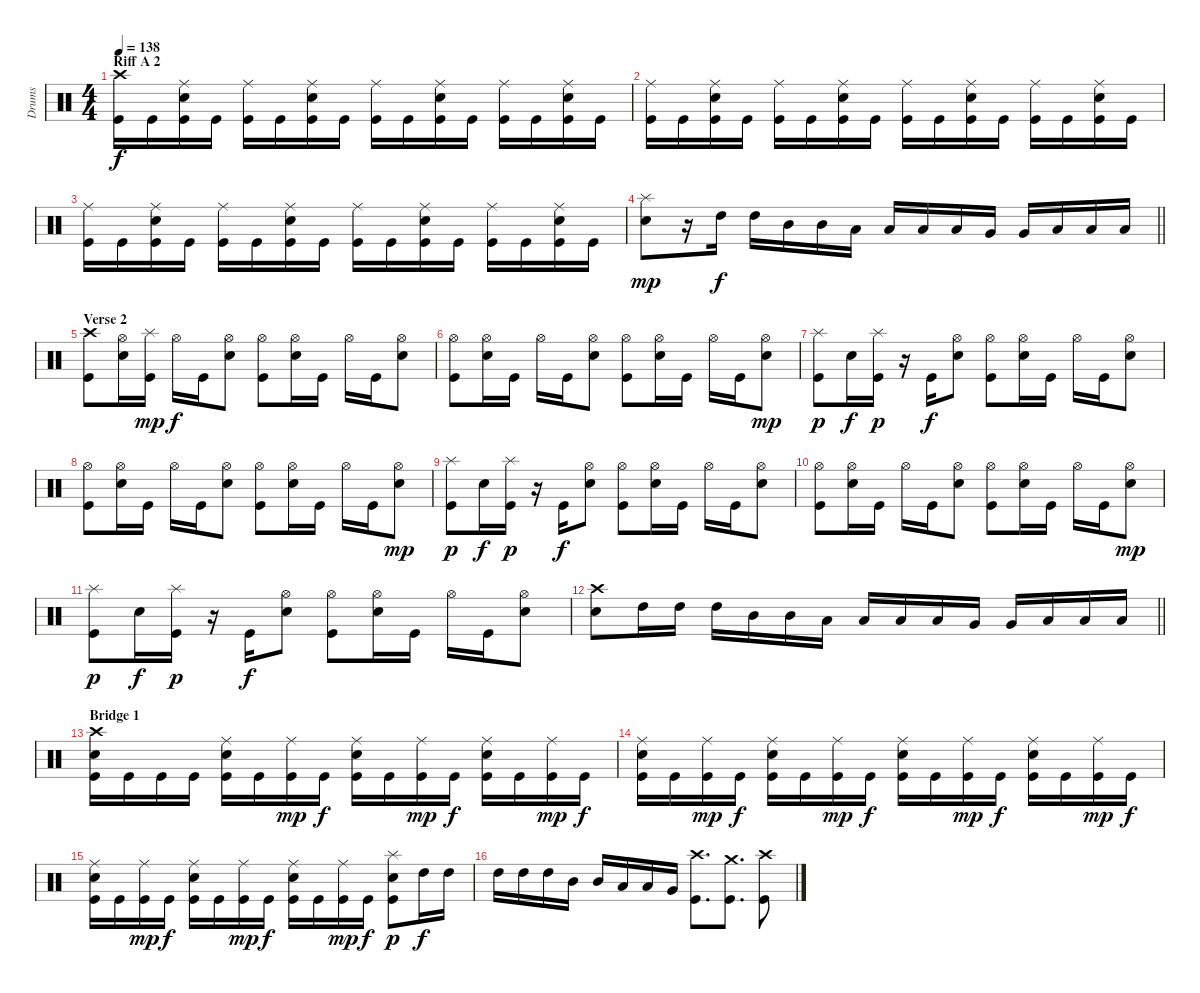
\track ("Drums" "Drums") {instrument percussion}
\staff {score}
\articulation defaults
\ts (4 4)
\section ("" "Riff A 2")
\tempo 138
\clef neutral
\ks c
("Crash high (hit)" "Kick (hit)").16{dy f} "Kick (hit)".16 ("Ride (middle)" "Electric Snare (hit)" "Kick (hit)").16 "Kick (hit)".16 ("Ride (middle)" "Kick (hit)").16 "Kick (hit)".16 ("Ride (middle)" "Electric Snare (hit)" "Kick (hit)").16 "Kick (hit)".16 ("Ride (middle)" "Kick (hit)").16 "Kick (hit)".16 ("Ride (middle)" "Electric Snare (hit)" "Kick (hit)").16 "Kick (hit)".16 ("Ride (middle)" "Kick (hit)").16 "Kick (hit)".16 ("Ride (middle)" "Electric Snare (hit)" "Kick (hit)").16 "Kick (hit)".16 |
("Ride (middle)" "Kick (hit)").16 "Kick (hit)".16 ("Ride (middle)" "Electric Snare (hit)" "Kick (hit)").16 "Kick (hit)".16 ("Ride (middle)" "Kick (hit)").16 "Kick (hit)".16 ("Ride (middle)" "Electric Snare (hit)" "Kick (hit)").16 "Kick (hit)".16 ("Ride (middle)" "Kick (hit)").16 "Kick (hit)".16 ("Ride (middle)" "Electric Snare (hit)" "Kick (hit)").16 "Kick (hit)".16 ("Ride (middle)" "Kick (hit)").16 "Kick (hit)".16 ("Ride (middle)" "Electric Snare (hit)" "Kick (hit)").16 "Kick (hit)".16 |
("Ride (middle)" "Kick (hit)").16 "Kick (hit)".16 ("Ride (middle)" "Electric Snare (hit)" "Kick (hit)").16 "Kick (hit)".16 ("Ride (middle)" "Kick (hit)").16 "Kick (hit)".16 ("Ride (middle)" "Electric Snare (hit)" "Kick (hit)").16 "Kick (hit)".16 ("Ride (middle)" "Kick (hit)").16 "Kick (hit)".16 ("Ride (middle)" "Electric Snare (hit)" "Kick (hit)").16 "Kick (hit)".16 ("Ride (middle)" "Kick (hit)").16 "Kick (hit)".16 ("Ride (middle)" "Electric Snare (hit)" "Kick (hit)").16 "Kick (hit)".16 |
\barLineRight lightlight
("Splash (hit)" "Electric Snare (hit)").8{dy mp} r.16 "High Tom (hit)".16{dy f} "High Tom (hit)".16 "Mid Tom (hit)".16 "Mid Tom (hit)".16 "Low Tom (hit)".16 "Low Tom (hit)".16 "Low Tom (hit)".16 "Low Tom (hit)".16 "Very Low Tom (hit)".16 "Very Low Tom (hit)".16 "Low Floor Tom (hit)".16 "Low Floor Tom (hit)".16 "Low Floor Tom (hit)".16 |
\section ("" "Verse 2")
("Crash high (hit)" "Kick (hit)").8 ("Hi-Hat (open)" "Electric Snare (hit)").16 ("Splash (hit)" "Kick (hit)").16{dy mp} "Hi-Hat (open)".16{dy f} "Kick (hit)".16 ("Hi-Hat (open)" "Electric Snare (hit)").8 ("Hi-Hat (open)" "Kick (hit)").8 ("Hi-Hat (open)" "Electric Snare (hit)").16 "Kick (hit)".16 "Hi-Hat (open)".16 "Kick (hit)".16 ("Hi-Hat (open)" "Electric Snare (hit)").8 |
("Hi-Hat (open)" "Kick (hit)").8 ("Hi-Hat (open)" "Electric Snare (hit)").16 "Kick (hit)".16 "Hi-Hat (open)".16 "Kick (hit)".16 ("Hi-Hat (open)" "Electric Snare (hit)").8 ("Hi-Hat (open)" "Kick (hit)").8 ("Hi-Hat (open)" "Electric Snare (hit)").16 "Kick (hit)".16 "Hi-Hat (open)".16 "Kick (hit)".16 ("Hi-Hat (open)" "Electric Snare (hit)").8{dy mp} |
("Splash (hit)" "Kick (hit)").8{dy p} "Electric Snare (hit)".16{dy f} ("Splash (hit)" "Kick (hit)").16{dy p} r.16 "Kick (hit)".16{dy f} ("Hi-Hat (open)" "Electric Snare (hit)").8 ("Hi-Hat (open)" "Kick (hit)").8 ("Hi-Hat (open)" "Electric Snare (hit)").16 "Kick (hit)".16 "Hi-Hat (open)".16 "Kick (hit)".16 ("Hi-Hat (open)" "Electric Snare (hit)").8 |
("Hi-Hat (open)" "Kick (hit)").8 ("Hi-Hat (open)" "Electric Snare (hit)").16 "Kick (hit)".16 "Hi-Hat (open)".16 "Kick (hit)".16 ("Hi-Hat (open)" "Electric Snare (hit)").8 ("Hi-Hat (open)" "Kick (hit)").8 ("Hi-Hat (open)" "Electric Snare (hit)").16 "Kick (hit)".16 "Hi-Hat (open)".16 "Kick (hit)".16 ("Hi-Hat (open)" "Electric Snare (hit)").8{dy mp} |
("Splash (hit)" "Kick (hit)").8{dy p} "Electric Snare (hit)".16{dy f} ("Splash (hit)" "Kick (hit)").16{dy p} r.16 "Kick (hit)".16{dy f} ("Hi-Hat (open)" "Electric Snare (hit)").8 ("Hi-Hat (open)" "Kick (hit)").8 ("Hi-Hat (open)" "Electric Snare (hit)").16 "Kick (hit)".16 "Hi-Hat (open)".16 "Kick (hit)".16 ("Hi-Hat (open)" "Electric Snare (hit)").8 |
("Hi-Hat (open)" "Kick (hit)").8 ("Hi-Hat (open)" "Electric Snare (hit)").16 "Kick (hit)".16 "Hi-Hat (open)".16 "Kick (hit)".16 ("Hi-Hat (open)" "Electric Snare (hit)").8 ("Hi-Hat (open)" "Kick (hit)").8 ("Hi-Hat (open)" "Electric Snare (hit)").16 "Kick (hit)".16 "Hi-Hat (open)".16 "Kick (hit)".16 ("Hi-Hat (open)" "Electric Snare (hit)").8{dy mp} |
("Splash (hit)" "Kick (hit)").8{dy p} "Electric Snare (hit)".16{dy f} ("Splash (hit)" "Kick (hit)").16{dy p} r.16 "Kick (hit)".16{dy f} ("Hi-Hat (open)" "Electric Snare (hit)").8 ("Hi-Hat (open)" "Kick (hit)").8 ("Hi-Hat (open)" "Electric Snare (hit)").16 "Kick (hit)".16 "Hi-Hat (open)".16 "Kick (hit)".16 ("Hi-Hat (open)" "Electric Snare (hit)").8 |
\barLineRight lightlight
("Crash high (hit)" "Electric Snare (hit)").8 "High Tom (hit)".16 "High Tom (hit)".16 "High Tom (hit)".16 "Mid Tom (hit)".16 "Mid Tom (hit)".16 "Low Tom (hit)".16 "Low Tom (hit)".16 "Low Tom (hit)".16 "Low Tom (hit)".16 "Very Low Tom (hit)".16 "Very Low Tom (hit)".16 "Low Floor Tom (hit)".16 "Low Floor Tom (hit)".16 "Low Floor Tom (hit)".16 |
\section ("" "Bridge 1")
("Crash high (hit)" "Electric Snare (hit)" "Kick (hit)").16 "Kick (hit)".16 "Kick (hit)".16 "Kick (hit)".16 ("Ride (middle)" "Electric Snare (hit)" "Kick (hit)").16 "Kick (hit)".16 ("Ride (middle)" "Kick (hit)").16{dy mp} "Kick (hit)".16{dy f} ("Ride (middle)" "Electric Snare (hit)" "Kick (hit)").16 "Kick (hit)".16 ("Ride (middle)" "Kick (hit)").16{dy mp} "Kick (hit)".16{dy f} ("Ride (middle)" "Electric Snare (hit)" "Kick (hit)").16 "Kick (hit)".16 ("Ride (middle)" "Kick (hit)").16{dy mp} "Kick (hit)".16{dy f} |
("Ride (middle)" "Electric Snare (hit)" "Kick (hit)").16 "Kick (hit)".16 ("Ride (middle)" "Kick (hit)").16{dy mp} "Kick (hit)".16{dy f} ("Ride (middle)" "Electric Snare (hit)" "Kick (hit)").16 "Kick (hit)".16 ("Ride (middle)" "Kick (hit)").16{dy mp} "Kick (hit)".16{dy f} ("Ride (middle)" "Electric Snare (hit)" "Kick (hit)").16 "Kick (hit)".16 ("Ride (middle)" "Kick (hit)").16{dy mp} "Kick (hit)".16{dy f} ("Ride (middle)" "Electric Snare (hit)" "Kick (hit)").16 "Kick (hit)".16 ("Ride (middle)" "Kick (hit)").16{dy mp} "Kick (hit)".16{dy f} |
("Ride (middle)" "Electric Snare (hit)" "Kick (hit)").16 "Kick (hit)".16 ("Ride (middle)" "Kick (hit)").16{dy mp} "Kick (hit)".16{dy f} ("Ride (middle)" "Electric Snare (hit)" "Kick (hit)").16 "Kick (hit)".16 ("Ride (middle)" "Kick (hit)").16{dy mp} "Kick (hit)".16{dy f} ("Ride (middle)" "Electric Snare (hit)" "Kick (hit)").16 "Kick (hit)".16 ("Ride (middle)" "Kick (hit)").16{dy mp} "Kick (hit)".16{dy f} ("Splash (hit)" "Electric Snare (hit)" "Kick (hit)").8{dy p} "High Tom (hit)".16{dy f} "High Tom (hit)".16 |
"High Tom (hit)".16 "High Tom (hit)".16 "High Tom (hit)".16 "Mid Tom (hit)".16 "Mid Tom (hit)".16 "Low Tom (hit)".16 "Low Tom (hit)".16 "Very Low Tom (hit)".16 ("Crash high (hit)" "Kick (hit)").8{d} ("Crash medium (hit)" "Kick (hit)").8{d} ("Crash high (hit)" "Kick (hit)").8
